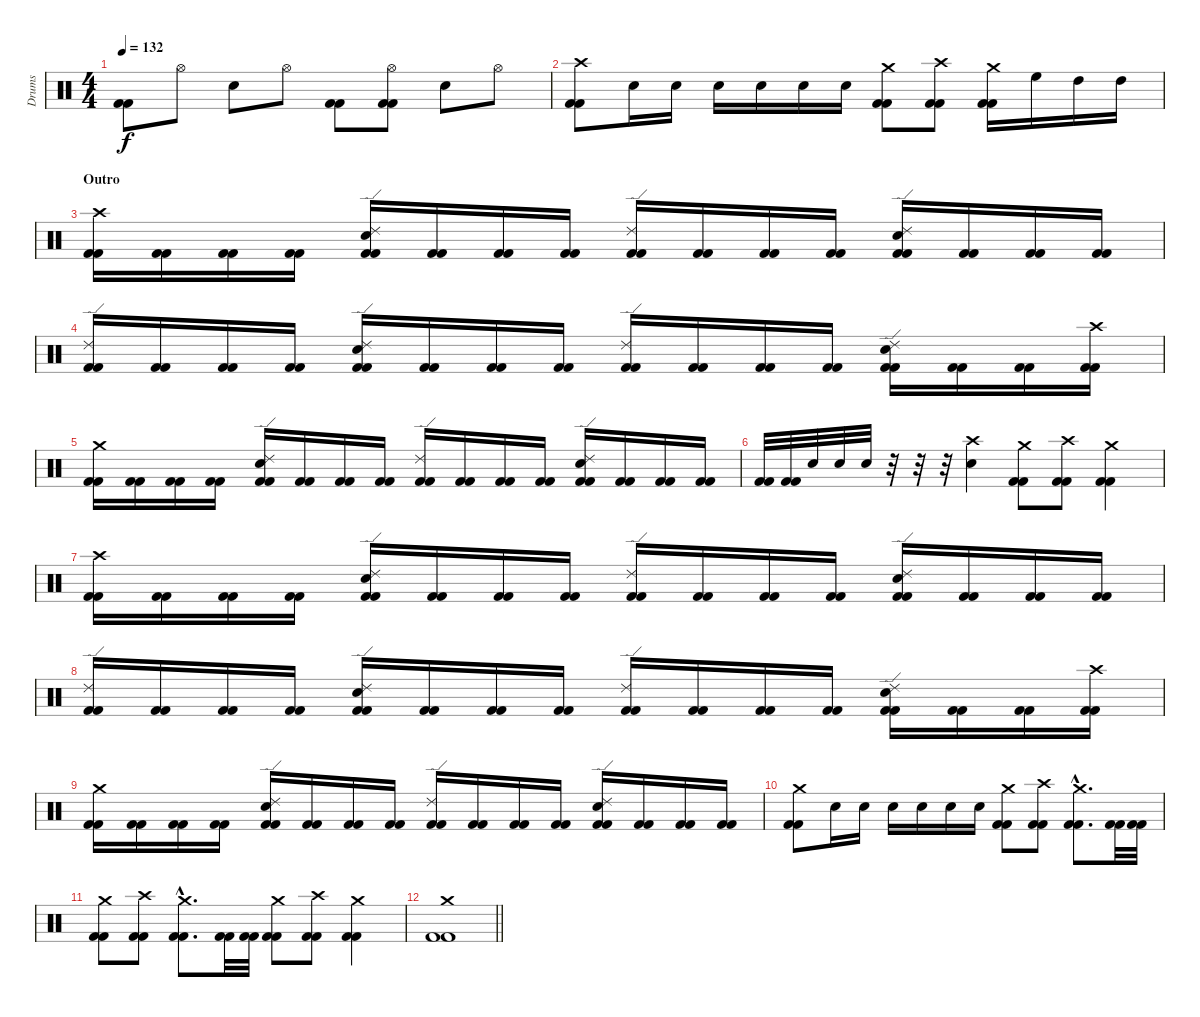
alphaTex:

\track ("Drums" "Drums") {instrument percussion}
\staff {score}
\articulation defaults
\ts (4 4)
\tempo 132
\clef neutral
\ks c
("Kick (hit) 2" "Kick (hit) 2").8{dy f} "Hi-Hat (open)".8 "Electric Snare (hit)".8 "Hi-Hat (open)".8 ("Kick (hit) 2" "Kick (hit) 2").8 ("Hi-Hat (open)" "Kick (hit) 2" "Kick (hit) 2").8 "Electric Snare (hit)".8 "Hi-Hat (open)".8 |
("Crash high (hit)" "Kick (hit) 2" "Kick (hit) 2").8 "Electric Snare (hit)".16 "Electric Snare (hit)".16 "Electric Snare (hit)".16 "Electric Snare (hit)".16 "Electric Snare (hit)".16 "Electric Snare (hit)".16 ("Crash medium (hit)" "Kick (hit) 2" "Kick (hit) 2").8 ("Crash high (hit)" "Kick (hit) 2" "Kick (hit) 2").8 ("Crash medium (hit)" "Kick (hit) 2" "Kick (hit) 2").16 "High Floor Tom (hit)".16 "High Tom (hit)".16 "High Tom (hit)".16 |
\section ("" "Outro")
("Crash high (hit)" "Kick (hit) 2" "Kick (hit) 2").16 ("Kick (hit) 2" "Kick (hit) 2").16 ("Kick (hit) 2" "Kick (hit) 2").16 ("Kick (hit) 2" "Kick (hit) 2").16 ("Ride (edge) 2" "Electric Snare (hit)" "Kick (hit) 2" "Kick (hit) 2").16 ("Kick (hit) 2" "Kick (hit) 2").16 ("Kick (hit) 2" "Kick (hit) 2").16 ("Kick (hit) 2" "Kick (hit) 2").16 ("Ride (edge) 2" "Kick (hit) 2" "Kick (hit) 2").16 ("Kick (hit) 2" "Kick (hit) 2").16 ("Kick (hit) 2" "Kick (hit) 2").16 ("Kick (hit) 2" "Kick (hit) 2").16 ("Ride (edge) 2" "Electric Snare (hit)" "Kick (hit) 2" "Kick (hit) 2").16 ("Kick (hit) 2" "Kick (hit) 2").16 ("Kick (hit) 2" "Kick (hit) 2").16 ("Kick (hit) 2" "Kick (hit) 2").16 |
("Ride (edge) 2" "Kick (hit) 2" "Kick (hit) 2").16 ("Kick (hit) 2" "Kick (hit) 2").16 ("Kick (hit) 2" "Kick (hit) 2").16 ("Kick (hit) 2" "Kick (hit) 2").16 ("Ride (edge) 2" "Electric Snare (hit)" "Kick (hit) 2" "Kick (hit) 2").16 ("Kick (hit) 2" "Kick (hit) 2").16 ("Kick (hit) 2" "Kick (hit) 2").16 ("Kick (hit) 2" "Kick (hit) 2").16 ("Ride (edge) 2" "Kick (hit) 2" "Kick (hit) 2").16 ("Kick (hit) 2" "Kick (hit) 2").16 ("Kick (hit) 2" "Kick (hit) 2").16 ("Kick (hit) 2" "Kick (hit) 2").16 ("Ride (edge) 2" "Electric Snare (hit)" "Kick (hit) 2" "Kick (hit) 2").16 ("Kick (hit) 2" "Kick (hit) 2").16 ("Kick (hit) 2" "Kick (hit) 2").16 ("Crash high (hit)" "Kick (hit) 2" "Kick (hit) 2").16 |
("Crash medium (hit)" "Kick (hit) 2" "Kick (hit) 2").16 ("Kick (hit) 2" "Kick (hit) 2").16 ("Kick (hit) 2" "Kick (hit) 2").16 ("Kick (hit) 2" "Kick (hit) 2").16 ("Ride (edge) 2" "Electric Snare (hit)" "Kick (hit) 2" "Kick (hit) 2").16 ("Kick (hit) 2" "Kick (hit) 2").16 ("Kick (hit) 2" "Kick (hit) 2").16 ("Kick (hit) 2" "Kick (hit) 2").16 ("Ride (edge) 2" "Kick (hit) 2" "Kick (hit) 2").16 ("Kick (hit) 2" "Kick (hit) 2").16 ("Kick (hit) 2" "Kick (hit) 2").16 ("Kick (hit) 2" "Kick (hit) 2").16 ("Ride (edge) 2" "Electric Snare (hit)" "Kick (hit) 2" "Kick (hit) 2").16 ("Kick (hit) 2" "Kick (hit) 2").16 ("Kick (hit) 2" "Kick (hit) 2").16 ("Kick (hit) 2" "Kick (hit) 2").16 |
("Kick (hit) 2" "Kick (hit) 2").32 ("Kick (hit) 2" "Kick (hit) 2").32 "Electric Snare (hit)".32 "Electric Snare (hit)".32 "Electric Snare (hit)".32 r.32 r.32 r.32 ("Crash high (hit)" "Electric Snare (hit)").4 ("Crash medium (hit)" "Kick (hit) 2" "Kick (hit) 2").8 ("Crash high (hit)" "Kick (hit) 2" "Kick (hit) 2").8 ("Crash medium (hit)" "Kick (hit) 2" "Kick (hit) 2").4 |
("Crash high (hit)" "Kick (hit) 2" "Kick (hit) 2").16 ("Kick (hit) 2" "Kick (hit) 2").16 ("Kick (hit) 2" "Kick (hit) 2").16 ("Kick (hit) 2" "Kick (hit) 2").16 ("Ride (edge) 2" "Electric Snare (hit)" "Kick (hit) 2" "Kick (hit) 2").16 ("Kick (hit) 2" "Kick (hit) 2").16 ("Kick (hit) 2" "Kick (hit) 2").16 ("Kick (hit) 2" "Kick (hit) 2").16 ("Ride (edge) 2" "Kick (hit) 2" "Kick (hit) 2").16 ("Kick (hit) 2" "Kick (hit) 2").16 ("Kick (hit) 2" "Kick (hit) 2").16 ("Kick (hit) 2" "Kick (hit) 2").16 ("Ride (edge) 2" "Electric Snare (hit)" "Kick (hit) 2" "Kick (hit) 2").16 ("Kick (hit) 2" "Kick (hit) 2").16 ("Kick (hit) 2" "Kick (hit) 2").16 ("Kick (hit) 2" "Kick (hit) 2").16 |
("Ride (edge) 2" "Kick (hit) 2" "Kick (hit) 2").16 ("Kick (hit) 2" "Kick (hit) 2").16 ("Kick (hit) 2" "Kick (hit) 2").16 ("Kick (hit) 2" "Kick (hit) 2").16 ("Ride (edge) 2" "Electric Snare (hit)" "Kick (hit) 2" "Kick (hit) 2").16 ("Kick (hit) 2" "Kick (hit) 2").16 ("Kick (hit) 2" "Kick (hit) 2").16 ("Kick (hit) 2" "Kick (hit) 2").16 ("Ride (edge) 2" "Kick (hit) 2" "Kick (hit) 2").16 ("Kick (hit) 2" "Kick (hit) 2").16 ("Kick (hit) 2" "Kick (hit) 2").16 ("Kick (hit) 2" "Kick (hit) 2").16 ("Ride (edge) 2" "Electric Snare (hit)" "Kick (hit) 2" "Kick (hit) 2").16 ("Kick (hit) 2" "Kick (hit) 2").16 ("Kick (hit) 2" "Kick (hit) 2").16 ("Crash high (hit)" "Kick (hit) 2" "Kick (hit) 2").16 |
("Crash medium (hit)" "Kick (hit) 2" "Kick (hit) 2").16 ("Kick (hit) 2" "Kick (hit) 2").16 ("Kick (hit) 2" "Kick (hit) 2").16 ("Kick (hit) 2" "Kick (hit) 2").16 ("Ride (edge) 2" "Electric Snare (hit)" "Kick (hit) 2" "Kick (hit) 2").16 ("Kick (hit) 2" "Kick (hit) 2").16 ("Kick (hit) 2" "Kick (hit) 2").16 ("Kick (hit) 2" "Kick (hit) 2").16 ("Ride (edge) 2" "Kick (hit) 2" "Kick (hit) 2").16 ("Kick (hit) 2" "Kick (hit) 2").16 ("Kick (hit) 2" "Kick (hit) 2").16 ("Kick (hit) 2" "Kick (hit) 2").16 ("Ride (edge) 2" "Electric Snare (hit)" "Kick (hit) 2" "Kick (hit) 2").16 ("Kick (hit) 2" "Kick (hit) 2").16 ("Kick (hit) 2" "Kick (hit) 2").16 ("Kick (hit) 2" "Kick (hit) 2").16 |
("Crash medium (hit)" "Kick (hit) 2" "Kick (hit) 2").8 "Electric Snare (hit)".16 "Electric Snare (hit)".16 "Electric Snare (hit)".16 "Electric Snare (hit)".16 "Electric Snare (hit)".16 "Electric Snare (hit)".16 ("Crash medium (hit)" "Kick (hit) 2" "Kick (hit) 2").8 ("Crash high (hit)" "Kick (hit) 2" "Kick (hit) 2").8 ("Crash medium (hit)"{hac} "Kick (hit) 2"{hac} "Kick (hit) 2"{hac}).8{d} ("Kick (hit) 2" "Kick (hit) 2").32 ("Kick (hit) 2" "Kick (hit) 2").32 |
("Crash medium (hit)" "Kick (hit) 2" "Kick (hit) 2").8 ("Crash high (hit)" "Kick (hit) 2" "Kick (hit) 2").8 ("Crash medium (hit)"{hac} "Kick (hit) 2"{hac} "Kick (hit) 2"{hac}).8{d} ("Kick (hit) 2" "Kick (hit) 2").32 ("Kick (hit) 2" "Kick (hit) 2").32 ("Crash medium (hit)" "Kick (hit) 2" "Kick (hit) 2").8 ("Crash high (hit)" "Kick (hit) 2" "Kick (hit) 2").8 ("Crash medium (hit)" "Kick (hit) 2" "Kick (hit) 2").4 |
\barLineRight lightlight
("Crash medium (hit)" "Kick (hit) 2" "Kick (hit) 2").1
